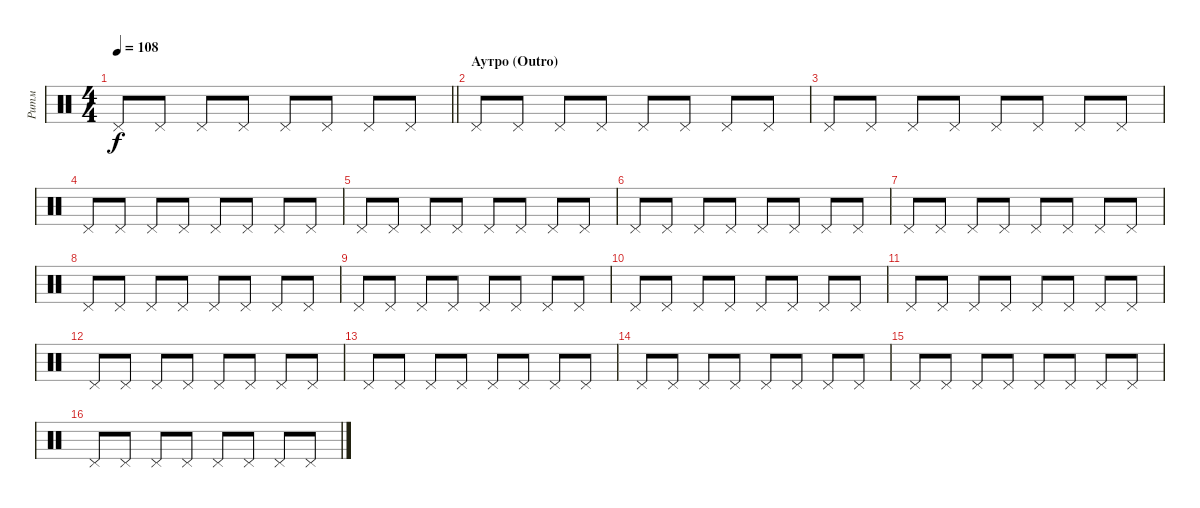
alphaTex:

\track ("Ритм" "Ритм") {instrument percussion}
\staff {score}
\articulation defaults
\ts (4 4)
\tempo 108
\clef neutral
\barLineRight lightlight
\ks c "Pedal Hi-Hat (hit)".8{dy f} "Pedal Hi-Hat (hit)".8 "Pedal Hi-Hat (hit)".8 "Pedal Hi-Hat (hit)".8 "Pedal Hi-Hat (hit)".8 "Pedal Hi-Hat (hit)".8 "Pedal Hi-Hat (hit)".8 "Pedal Hi-Hat (hit)".8
|
\section ("" "Аутро (Outro)")
"Pedal Hi-Hat (hit)".8 "Pedal Hi-Hat (hit)".8 "Pedal Hi-Hat (hit)".8 "Pedal Hi-Hat (hit)".8 "Pedal Hi-Hat (hit)".8 "Pedal Hi-Hat (hit)".8 "Pedal Hi-Hat (hit)".8 "Pedal Hi-Hat (hit)".8 |
"Pedal Hi-Hat (hit)".8 "Pedal Hi-Hat (hit)".8 "Pedal Hi-Hat (hit)".8 "Pedal Hi-Hat (hit)".8 "Pedal Hi-Hat (hit)".8 "Pedal Hi-Hat (hit)".8 "Pedal Hi-Hat (hit)".8 "Pedal Hi-Hat (hit)".8 |
"Pedal Hi-Hat (hit)".8 "Pedal Hi-Hat (hit)".8 "Pedal Hi-Hat (hit)".8 "Pedal Hi-Hat (hit)".8 "Pedal Hi-Hat (hit)".8 "Pedal Hi-Hat (hit)".8 "Pedal Hi-Hat (hit)".8 "Pedal Hi-Hat (hit)".8 |
"Pedal Hi-Hat (hit)".8 "Pedal Hi-Hat (hit)".8 "Pedal Hi-Hat (hit)".8 "Pedal Hi-Hat (hit)".8 "Pedal Hi-Hat (hit)".8 "Pedal Hi-Hat (hit)".8 "Pedal Hi-Hat (hit)".8 "Pedal Hi-Hat (hit)".8 |
"Pedal Hi-Hat (hit)".8 "Pedal Hi-Hat (hit)".8 "Pedal Hi-Hat (hit)".8 "Pedal Hi-Hat (hit)".8 "Pedal Hi-Hat (hit)".8 "Pedal Hi-Hat (hit)".8 "Pedal Hi-Hat (hit)".8 "Pedal Hi-Hat (hit)".8 |
"Pedal Hi-Hat (hit)".8 "Pedal Hi-Hat (hit)".8 "Pedal Hi-Hat (hit)".8 "Pedal Hi-Hat (hit)".8 "Pedal Hi-Hat (hit)".8 "Pedal Hi-Hat (hit)".8 "Pedal Hi-Hat (hit)".8 "Pedal Hi-Hat (hit)".8 |
"Pedal Hi-Hat (hit)".8 "Pedal Hi-Hat (hit)".8 "Pedal Hi-Hat (hit)".8 "Pedal Hi-Hat (hit)".8 "Pedal Hi-Hat (hit)".8 "Pedal Hi-Hat (hit)".8 "Pedal Hi-Hat (hit)".8 "Pedal Hi-Hat (hit)".8 |
"Pedal Hi-Hat (hit)".8 "Pedal Hi-Hat (hit)".8 "Pedal Hi-Hat (hit)".8 "Pedal Hi-Hat (hit)".8 "Pedal Hi-Hat (hit)".8 "Pedal Hi-Hat (hit)".8 "Pedal Hi-Hat (hit)".8 "Pedal Hi-Hat (hit)".8 |
"Pedal Hi-Hat (hit)".8 "Pedal Hi-Hat (hit)".8 "Pedal Hi-Hat (hit)".8 "Pedal Hi-Hat (hit)".8 "Pedal Hi-Hat (hit)".8 "Pedal Hi-Hat (hit)".8 "Pedal Hi-Hat (hit)".8 "Pedal Hi-Hat (hit)".8 |
"Pedal Hi-Hat (hit)".8 "Pedal Hi-Hat (hit)".8 "Pedal Hi-Hat (hit)".8 "Pedal Hi-Hat (hit)".8 "Pedal Hi-Hat (hit)".8 "Pedal Hi-Hat (hit)".8 "Pedal Hi-Hat (hit)".8 "Pedal Hi-Hat (hit)".8 |
"Pedal Hi-Hat (hit)".8 "Pedal Hi-Hat (hit)".8 "Pedal Hi-Hat (hit)".8 "Pedal Hi-Hat (hit)".8 "Pedal Hi-Hat (hit)".8 "Pedal Hi-Hat (hit)".8 "Pedal Hi-Hat (hit)".8 "Pedal Hi-Hat (hit)".8 |
"Pedal Hi-Hat (hit)".8 "Pedal Hi-Hat (hit)".8 "Pedal Hi-Hat (hit)".8 "Pedal Hi-Hat (hit)".8 "Pedal Hi-Hat (hit)".8 "Pedal Hi-Hat (hit)".8 "Pedal Hi-Hat (hit)".8 "Pedal Hi-Hat (hit)".8 |
"Pedal Hi-Hat (hit)".8 "Pedal Hi-Hat (hit)".8 "Pedal Hi-Hat (hit)".8 "Pedal Hi-Hat (hit)".8 "Pedal Hi-Hat (hit)".8 "Pedal Hi-Hat (hit)".8 "Pedal Hi-Hat (hit)".8 "Pedal Hi-Hat (hit)".8 |
"Pedal Hi-Hat (hit)".8 "Pedal Hi-Hat (hit)".8 "Pedal Hi-Hat (hit)".8 "Pedal Hi-Hat (hit)".8 "Pedal Hi-Hat (hit)".8 "Pedal Hi-Hat (hit)".8 "Pedal Hi-Hat (hit)".8 "Pedal Hi-Hat (hit)".8 |
"Pedal Hi-Hat (hit)".8 "Pedal Hi-Hat (hit)".8 "Pedal Hi-Hat (hit)".8 "Pedal Hi-Hat (hit)".8 "Pedal Hi-Hat (hit)".8 "Pedal Hi-Hat (hit)".8 "Pedal Hi-Hat (hit)".8 "Pedal Hi-Hat (hit)".8
